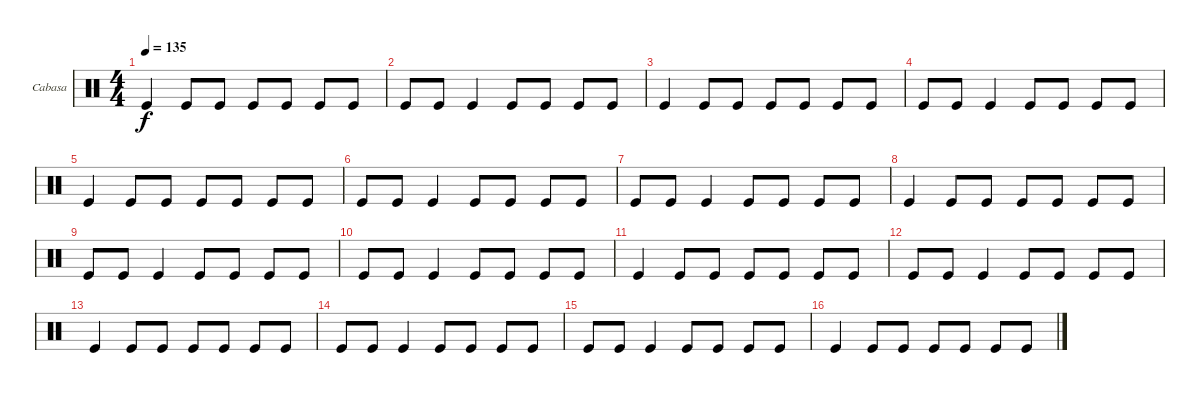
\bracketExtendMode groupsimilarinstruments
\firstSystemTrackNameOrientation horizontal
\otherSystemsTrackNameOrientation horizontal
\track ("Cabasa" "Cabasa") {instrument percussion}
\staff {score}
\articulation defaults
\ts (4 4)
\tempo 135
\clef neutral
\ks c "Kick (hit)".4{dy f} "Kick (hit)".8 "Kick (hit)".8 "Kick (hit)".8 "Kick (hit)".8 "Kick (hit)".8 "Kick (hit)".8
|
"Kick (hit)".8 "Kick (hit)".8 "Kick (hit)".4 "Kick (hit)".8 "Kick (hit)".8 "Kick (hit)".8 "Kick (hit)".8 |
"Kick (hit)".4 "Kick (hit)".8 "Kick (hit)".8 "Kick (hit)".8 "Kick (hit)".8 "Kick (hit)".8 "Kick (hit)".8 |
"Kick (hit)".8 "Kick (hit)".8 "Kick (hit)".4 "Kick (hit)".8 "Kick (hit)".8 "Kick (hit)".8 "Kick (hit)".8 |
"Kick (hit)".4 "Kick (hit)".8 "Kick (hit)".8 "Kick (hit)".8 "Kick (hit)".8 "Kick (hit)".8 "Kick (hit)".8 |
"Kick (hit)".8 "Kick (hit)".8 "Kick (hit)".4 "Kick (hit)".8 "Kick (hit)".8 "Kick (hit)".8 "Kick (hit)".8 |
"Kick (hit)".8 "Kick (hit)".8 "Kick (hit)".4 "Kick (hit)".8 "Kick (hit)".8 "Kick (hit)".8 "Kick (hit)".8 |
"Kick (hit)".4 "Kick (hit)".8 "Kick (hit)".8 "Kick (hit)".8 "Kick (hit)".8 "Kick (hit)".8 "Kick (hit)".8 |
"Kick (hit)".8 "Kick (hit)".8 "Kick (hit)".4 "Kick (hit)".8 "Kick (hit)".8 "Kick (hit)".8 "Kick (hit)".8 |
"Kick (hit)".8 "Kick (hit)".8 "Kick (hit)".4 "Kick (hit)".8 "Kick (hit)".8 "Kick (hit)".8 "Kick (hit)".8 |
"Kick (hit)".4 "Kick (hit)".8 "Kick (hit)".8 "Kick (hit)".8 "Kick (hit)".8 "Kick (hit)".8 "Kick (hit)".8 |
"Kick (hit)".8 "Kick (hit)".8 "Kick (hit)".4 "Kick (hit)".8 "Kick (hit)".8 "Kick (hit)".8 "Kick (hit)".8 |
"Kick (hit)".4 "Kick (hit)".8 "Kick (hit)".8 "Kick (hit)".8 "Kick (hit)".8 "Kick (hit)".8 "Kick (hit)".8 |
"Kick (hit)".8 "Kick (hit)".8 "Kick (hit)".4 "Kick (hit)".8 "Kick (hit)".8 "Kick (hit)".8 "Kick (hit)".8 |
"Kick (hit)".8 "Kick (hit)".8 "Kick (hit)".4 "Kick (hit)".8 "Kick (hit)".8 "Kick (hit)".8 "Kick (hit)".8 |
"Kick (hit)".4 "Kick (hit)".8 "Kick (hit)".8 "Kick (hit)".8 "Kick (hit)".8 "Kick (hit)".8 "Kick (hit)".8
